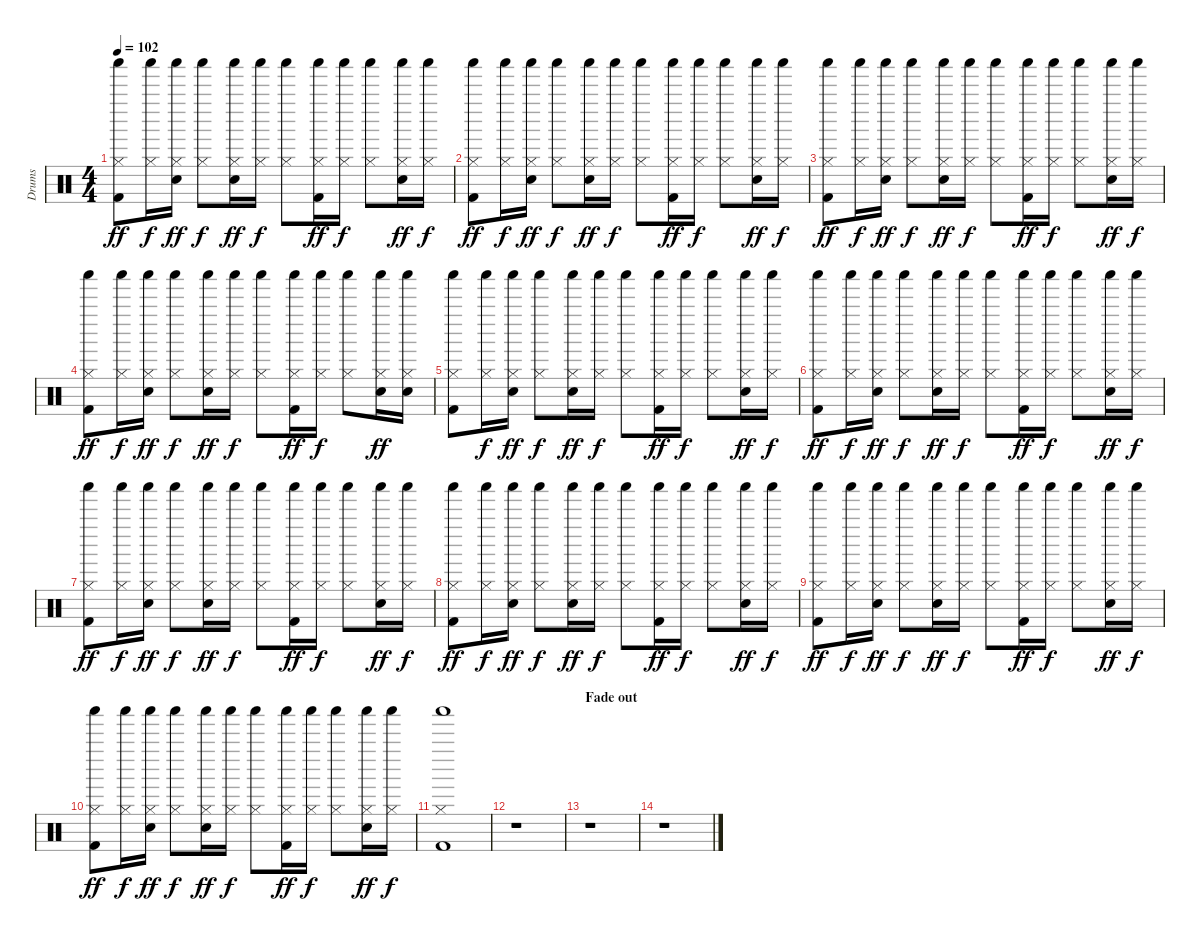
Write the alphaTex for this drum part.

\track ("Drums" "Drums") {instrument percussion}
\staff {score}
\articulation defaults
\ts (4 4)
\tempo 102
\clef neutral
\ks c
("Hi-Hat (closed)" "Shaker (hit)" "Kick (hit) 2").8{dy ff} ("Hi-Hat (closed)" "Shaker (hit)").16{dy f} ("Hi-Hat (closed)" "Shaker (hit)" "Snare (hit) 2").16{dy ff} ("Hi-Hat (closed)" "Shaker (hit)").8{dy f} ("Hi-Hat (closed)" "Shaker (hit)" "Snare (hit) 2").16{dy ff} ("Hi-Hat (closed)" "Shaker (hit)").16{dy f} ("Hi-Hat (closed)" "Shaker (hit)").8 ("Hi-Hat (closed)" "Shaker (hit)" "Kick (hit) 2").16{dy ff} ("Hi-Hat (closed)" "Shaker (hit)").16{dy f} ("Hi-Hat (closed)" "Shaker (hit)").8 ("Hi-Hat (closed)" "Shaker (hit)" "Snare (hit) 2").16{dy ff} ("Hi-Hat (closed)" "Shaker (hit)").16{dy f} |
("Hi-Hat (closed)" "Shaker (hit)" "Kick (hit) 2").8{dy ff} ("Hi-Hat (closed)" "Shaker (hit)").16{dy f} ("Hi-Hat (closed)" "Shaker (hit)" "Snare (hit) 2").16{dy ff} ("Hi-Hat (closed)" "Shaker (hit)").8{dy f} ("Hi-Hat (closed)" "Shaker (hit)" "Snare (hit) 2").16{dy ff} ("Hi-Hat (closed)" "Shaker (hit)").16{dy f} ("Hi-Hat (closed)" "Shaker (hit)").8 ("Hi-Hat (closed)" "Shaker (hit)" "Kick (hit) 2").16{dy ff} ("Hi-Hat (closed)" "Shaker (hit)").16{dy f} ("Hi-Hat (closed)" "Shaker (hit)").8 ("Hi-Hat (closed)" "Shaker (hit)" "Snare (hit) 2").16{dy ff} ("Hi-Hat (closed)" "Shaker (hit)").16{dy f} |
("Hi-Hat (closed)" "Shaker (hit)" "Kick (hit) 2").8{dy ff} ("Hi-Hat (closed)" "Shaker (hit)").16{dy f} ("Hi-Hat (closed)" "Shaker (hit)" "Snare (hit) 2").16{dy ff} ("Hi-Hat (closed)" "Shaker (hit)").8{dy f} ("Hi-Hat (closed)" "Shaker (hit)" "Snare (hit) 2").16{dy ff} ("Hi-Hat (closed)" "Shaker (hit)").16{dy f} ("Hi-Hat (closed)" "Shaker (hit)").8 ("Hi-Hat (closed)" "Shaker (hit)" "Kick (hit) 2").16{dy ff} ("Hi-Hat (closed)" "Shaker (hit)").16{dy f} ("Hi-Hat (closed)" "Shaker (hit)").8 ("Hi-Hat (closed)" "Shaker (hit)" "Snare (hit) 2").16{dy ff} ("Hi-Hat (closed)" "Shaker (hit)").16{dy f} |
("Hi-Hat (closed)" "Shaker (hit)" "Kick (hit) 2").8{dy ff} ("Hi-Hat (closed)" "Shaker (hit)").16{dy f} ("Hi-Hat (closed)" "Shaker (hit)" "Snare (hit) 2").16{dy ff} ("Hi-Hat (closed)" "Shaker (hit)").8{dy f} ("Hi-Hat (closed)" "Shaker (hit)" "Snare (hit) 2").16{dy ff} ("Hi-Hat (closed)" "Shaker (hit)").16{dy f} ("Hi-Hat (closed)" "Shaker (hit)").8 ("Hi-Hat (closed)" "Shaker (hit)" "Kick (hit) 2").16{dy ff} ("Hi-Hat (closed)" "Shaker (hit)").16{dy f} ("Hi-Hat (closed)" "Shaker (hit)").8 ("Hi-Hat (closed)" "Shaker (hit)" "Snare (hit) 2").16{dy ff} ("Hi-Hat (closed)" "Shaker (hit)" "Snare (hit) 2").16 |
("Hi-Hat (closed)" "Shaker (hit)" "Kick (hit) 2").8 ("Hi-Hat (closed)" "Shaker (hit)").16{dy f} ("Hi-Hat (closed)" "Shaker (hit)" "Snare (hit) 2").16{dy ff} ("Hi-Hat (closed)" "Shaker (hit)").8{dy f} ("Hi-Hat (closed)" "Shaker (hit)" "Snare (hit) 2").16{dy ff} ("Hi-Hat (closed)" "Shaker (hit)").16{dy f} ("Hi-Hat (closed)" "Shaker (hit)").8 ("Hi-Hat (closed)" "Shaker (hit)" "Kick (hit) 2").16{dy ff} ("Hi-Hat (closed)" "Shaker (hit)").16{dy f} ("Hi-Hat (closed)" "Shaker (hit)").8 ("Hi-Hat (closed)" "Shaker (hit)" "Snare (hit) 2").16{dy ff} ("Hi-Hat (closed)" "Shaker (hit)").16{dy f} |
("Hi-Hat (closed)" "Shaker (hit)" "Kick (hit) 2").8{dy ff} ("Hi-Hat (closed)" "Shaker (hit)").16{dy f} ("Hi-Hat (closed)" "Shaker (hit)" "Snare (hit) 2").16{dy ff} ("Hi-Hat (closed)" "Shaker (hit)").8{dy f} ("Hi-Hat (closed)" "Shaker (hit)" "Snare (hit) 2").16{dy ff} ("Hi-Hat (closed)" "Shaker (hit)").16{dy f} ("Hi-Hat (closed)" "Shaker (hit)").8 ("Hi-Hat (closed)" "Shaker (hit)" "Kick (hit) 2").16{dy ff} ("Hi-Hat (closed)" "Shaker (hit)").16{dy f} ("Hi-Hat (closed)" "Shaker (hit)").8 ("Hi-Hat (closed)" "Shaker (hit)" "Snare (hit) 2").16{dy ff} ("Hi-Hat (closed)" "Shaker (hit)").16{dy f} |
("Hi-Hat (closed)" "Shaker (hit)" "Kick (hit) 2").8{dy ff} ("Hi-Hat (closed)" "Shaker (hit)").16{dy f} ("Hi-Hat (closed)" "Shaker (hit)" "Snare (hit) 2").16{dy ff} ("Hi-Hat (closed)" "Shaker (hit)").8{dy f} ("Hi-Hat (closed)" "Shaker (hit)" "Snare (hit) 2").16{dy ff} ("Hi-Hat (closed)" "Shaker (hit)").16{dy f} ("Hi-Hat (closed)" "Shaker (hit)").8 ("Hi-Hat (closed)" "Shaker (hit)" "Kick (hit) 2").16{dy ff} ("Hi-Hat (closed)" "Shaker (hit)").16{dy f} ("Hi-Hat (closed)" "Shaker (hit)").8 ("Hi-Hat (closed)" "Shaker (hit)" "Snare (hit) 2").16{dy ff} ("Hi-Hat (closed)" "Shaker (hit)").16{dy f} |
("Hi-Hat (closed)" "Shaker (hit)" "Kick (hit) 2").8{dy ff} ("Hi-Hat (closed)" "Shaker (hit)").16{dy f} ("Hi-Hat (closed)" "Shaker (hit)" "Snare (hit) 2").16{dy ff} ("Hi-Hat (closed)" "Shaker (hit)").8{dy f} ("Hi-Hat (closed)" "Shaker (hit)" "Snare (hit) 2").16{dy ff} ("Hi-Hat (closed)" "Shaker (hit)").16{dy f} ("Hi-Hat (closed)" "Shaker (hit)").8 ("Hi-Hat (closed)" "Shaker (hit)" "Kick (hit) 2").16{dy ff} ("Hi-Hat (closed)" "Shaker (hit)").16{dy f} ("Hi-Hat (closed)" "Shaker (hit)").8 ("Hi-Hat (closed)" "Shaker (hit)" "Snare (hit) 2").16{dy ff} ("Hi-Hat (closed)" "Shaker (hit)").16{dy f} |
("Hi-Hat (closed)" "Shaker (hit)" "Kick (hit) 2").8{dy ff} ("Hi-Hat (closed)" "Shaker (hit)").16{dy f} ("Hi-Hat (closed)" "Shaker (hit)" "Snare (hit) 2").16{dy ff} ("Hi-Hat (closed)" "Shaker (hit)").8{dy f} ("Hi-Hat (closed)" "Shaker (hit)" "Snare (hit) 2").16{dy ff} ("Hi-Hat (closed)" "Shaker (hit)").16{dy f} ("Hi-Hat (closed)" "Shaker (hit)").8 ("Hi-Hat (closed)" "Shaker (hit)" "Kick (hit) 2").16{dy ff} ("Hi-Hat (closed)" "Shaker (hit)").16{dy f} ("Hi-Hat (closed)" "Shaker (hit)").8 ("Hi-Hat (closed)" "Shaker (hit)" "Snare (hit) 2").16{dy ff} ("Hi-Hat (closed)" "Shaker (hit)").16{dy f} |
("Hi-Hat (closed)" "Shaker (hit)" "Kick (hit) 2").8{dy ff} ("Hi-Hat (closed)" "Shaker (hit)").16{dy f} ("Hi-Hat (closed)" "Shaker (hit)" "Snare (hit) 2").16{dy ff} ("Hi-Hat (closed)" "Shaker (hit)").8{dy f} ("Hi-Hat (closed)" "Shaker (hit)" "Snare (hit) 2").16{dy ff} ("Hi-Hat (closed)" "Shaker (hit)").16{dy f} ("Hi-Hat (closed)" "Shaker (hit)").8 ("Hi-Hat (closed)" "Shaker (hit)" "Kick (hit) 2").16{dy ff} ("Hi-Hat (closed)" "Shaker (hit)").16{dy f} ("Hi-Hat (closed)" "Shaker (hit)").8 ("Hi-Hat (closed)" "Shaker (hit)" "Snare (hit) 2").16{dy ff} ("Hi-Hat (closed)" "Shaker (hit)").16{dy f} |
("Hi-Hat (closed)" "Shaker (hit)" "Kick (hit) 2").1 |
r.1 |
\section ("" "Fade out")
r.1 |
r.1
